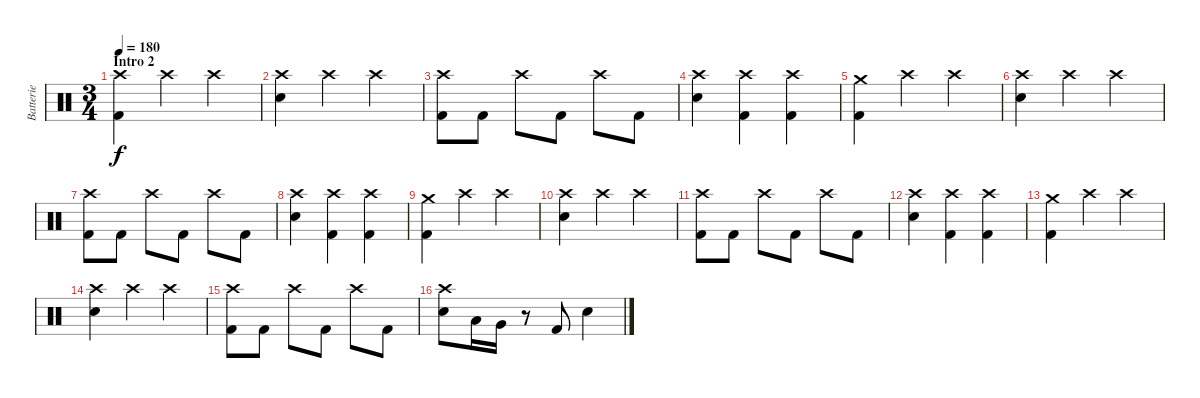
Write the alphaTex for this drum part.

\track ("Batterie" "Batterie") {instrument percussion}
\staff {score}
\articulation defaults
\ts (3 4)
\section ("" "Intro 2")
\tempo 180
\clef neutral
\ks c
("Crash high (hit)" "Kick (hit) 2").4{dy f} "Crash high (hit)".4 "Crash high (hit)".4 |
("Crash high (hit)" "Electric Snare (hit)").4 "Crash high (hit)".4 "Crash high (hit)".4 |
("Crash high (hit)" "Kick (hit) 2").8 "Kick (hit) 2".8 "Crash high (hit)".8 "Kick (hit) 2".8 "Crash high (hit)".8 "Kick (hit) 2".8 |
("Crash high (hit)" "Electric Snare (hit)").4 ("Crash high (hit)" "Kick (hit) 2").4 ("Crash high (hit)" "Kick (hit) 2").4 |
("Crash medium (hit)" "Kick (hit) 2").4 "Crash high (hit)".4 "Crash high (hit)".4 |
("Crash high (hit)" "Electric Snare (hit)").4 "Crash high (hit)".4 "Crash high (hit)".4 |
("Crash high (hit)" "Kick (hit) 2").8 "Kick (hit) 2".8 "Crash high (hit)".8 "Kick (hit) 2".8 "Crash high (hit)".8 "Kick (hit) 2".8 |
("Crash high (hit)" "Electric Snare (hit)").4 ("Crash high (hit)" "Kick (hit) 2").4 ("Crash high (hit)" "Kick (hit) 2").4 |
("Crash medium (hit)" "Kick (hit) 2").4 "Crash high (hit)".4 "Crash high (hit)".4 |
("Crash high (hit)" "Electric Snare (hit)").4 "Crash high (hit)".4 "Crash high (hit)".4 |
("Crash high (hit)" "Kick (hit) 2").8 "Kick (hit) 2".8 "Crash high (hit)".8 "Kick (hit) 2".8 "Crash high (hit)".8 "Kick (hit) 2".8 |
("Crash high (hit)" "Electric Snare (hit)").4 ("Crash high (hit)" "Kick (hit) 2").4 ("Crash high (hit)" "Kick (hit) 2").4 |
("Crash medium (hit)" "Kick (hit) 2").4 "Crash high (hit)".4 "Crash high (hit)".4 |
("Crash high (hit)" "Electric Snare (hit)").4 "Crash high (hit)".4 "Crash high (hit)".4 |
("Crash high (hit)" "Kick (hit) 2").8 "Kick (hit) 2".8 "Crash high (hit)".8 "Kick (hit) 2".8 "Crash high (hit)".8 "Kick (hit) 2".8 |
("Crash high (hit)" "Electric Snare (hit)").8 "Low Tom (hit)".16 "Very Low Tom (hit)".16 r.8 "Kick (hit) 2".8 "Electric Snare (hit)".4
